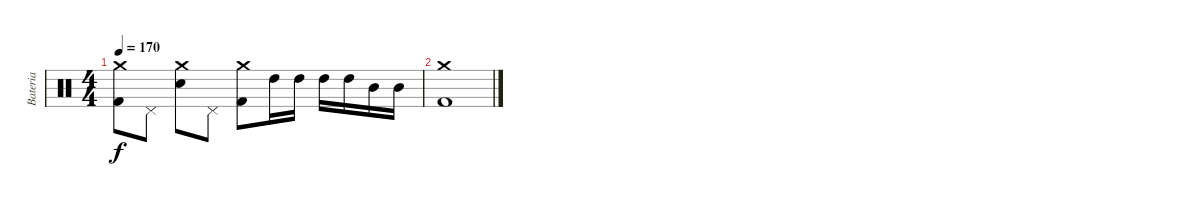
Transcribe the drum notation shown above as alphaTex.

\track ("Bateria" "Bateria") {instrument percussion}
\staff {score}
\articulation defaults
\ts (4 4)
\tempo 170
\clef neutral
\ks c
("Crash medium (hit)" "Kick (hit) 2").8{dy f} "Pedal Hi-Hat (hit)".8 ("Crash medium (hit)" "Snare (hit) 2").8 "Pedal Hi-Hat (hit)".8 ("Crash medium (hit)" "Kick (hit) 2").8 "High Tom (hit)".16 "High Tom (hit)".16 "High Tom (hit)".16 "High Tom (hit)".16 "Mid Tom (hit)".16 "Mid Tom (hit)".16 |
("Crash medium (hit)" "Kick (hit) 2").1
